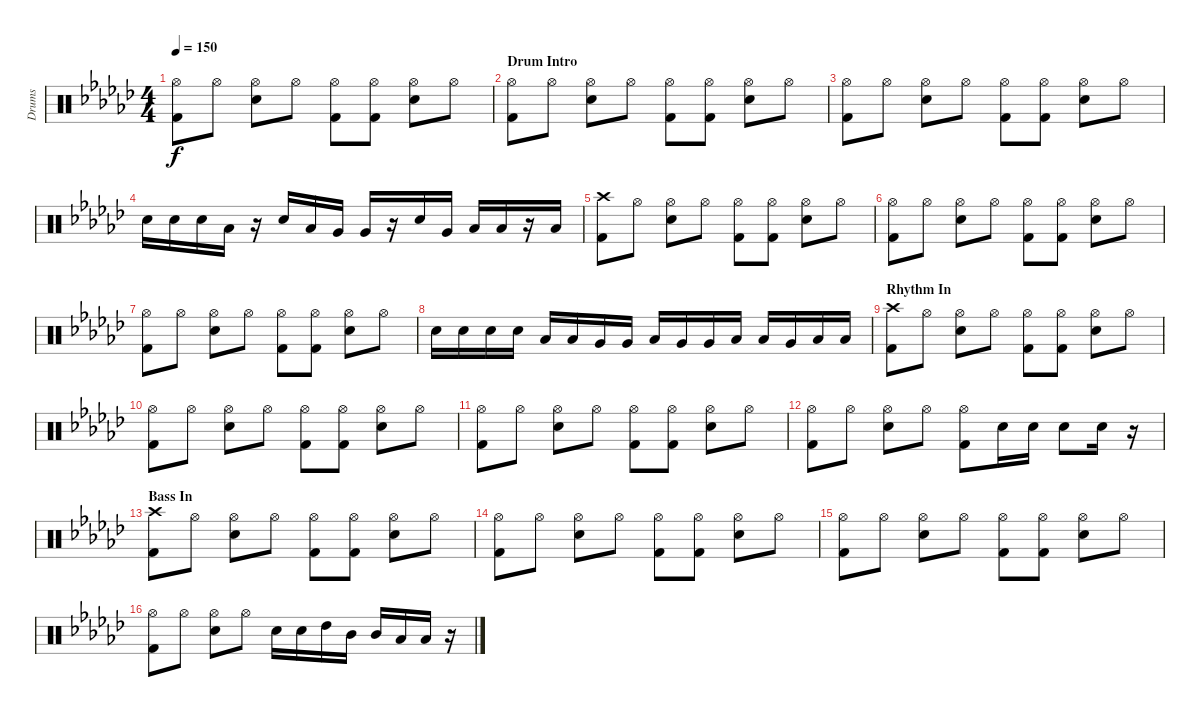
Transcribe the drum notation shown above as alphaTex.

\track ("Drums" "Drums") {instrument percussion}
\staff {score}
\articulation defaults
\ts (4 4)
\tempo 150
\clef neutral
\ks gb
("Hi-Hat (open)" "Kick (hit) 2").8{dy f} "Hi-Hat (open)".8 ("Hi-Hat (open)" "Electric Snare (hit)").8 "Hi-Hat (open)".8 ("Hi-Hat (open)" "Kick (hit) 2").8 ("Hi-Hat (open)" "Kick (hit) 2").8 ("Hi-Hat (open)" "Electric Snare (hit)").8 "Hi-Hat (open)".8 |
\section ("" "Drum Intro")
("Hi-Hat (open)" "Kick (hit) 2").8 "Hi-Hat (open)".8 ("Hi-Hat (open)" "Electric Snare (hit)").8 "Hi-Hat (open)".8 ("Hi-Hat (open)" "Kick (hit) 2").8 ("Hi-Hat (open)" "Kick (hit) 2").8 ("Hi-Hat (open)" "Electric Snare (hit)").8 "Hi-Hat (open)".8 |
("Hi-Hat (open)" "Kick (hit) 2").8 "Hi-Hat (open)".8 ("Hi-Hat (open)" "Electric Snare (hit)").8 "Hi-Hat (open)".8 ("Hi-Hat (open)" "Kick (hit) 2").8 ("Hi-Hat (open)" "Kick (hit) 2").8 ("Hi-Hat (open)" "Electric Snare (hit)").8 "Hi-Hat (open)".8 |
"Electric Snare (hit)".16 "Electric Snare (hit)".16 "Electric Snare (hit)".16 "Low Tom (hit)".16 r.16 "Electric Snare (hit)".16 "Low Tom (hit)".16 "Very Low Tom (hit)".16 "Very Low Tom (hit)".16 r.16 "Electric Snare (hit)".16 "Very Low Tom (hit)".16 "Low Floor Tom (hit)".16 "Low Floor Tom (hit)".16 r.16 "Low Floor Tom (hit)".16 |
("Crash high (hit)" "Kick (hit) 2").8 "Hi-Hat (open)".8 ("Hi-Hat (open)" "Electric Snare (hit)").8 "Hi-Hat (open)".8 ("Hi-Hat (open)" "Kick (hit) 2").8 ("Hi-Hat (open)" "Kick (hit) 2").8 ("Hi-Hat (open)" "Electric Snare (hit)").8 "Hi-Hat (open)".8 |
("Hi-Hat (open)" "Kick (hit) 2").8 "Hi-Hat (open)".8 ("Hi-Hat (open)" "Electric Snare (hit)").8 "Hi-Hat (open)".8 ("Hi-Hat (open)" "Kick (hit) 2").8 ("Hi-Hat (open)" "Kick (hit) 2").8 ("Hi-Hat (open)" "Electric Snare (hit)").8 "Hi-Hat (open)".8 |
("Hi-Hat (open)" "Kick (hit) 2").8 "Hi-Hat (open)".8 ("Hi-Hat (open)" "Electric Snare (hit)").8 "Hi-Hat (open)".8 ("Hi-Hat (open)" "Kick (hit) 2").8 ("Hi-Hat (open)" "Kick (hit) 2").8 ("Hi-Hat (open)" "Electric Snare (hit)").8 "Hi-Hat (open)".8 |
"Electric Snare (hit)".16 "Electric Snare (hit)".16 "Electric Snare (hit)".16 "Electric Snare (hit)".16 "Low Tom (hit)".16 "Low Tom (hit)".16 "Very Low Tom (hit)".16 "Very Low Tom (hit)".16 "Low Tom (hit)".16 "Very Low Tom (hit)".16 "Very Low Tom (hit)".16 "Low Floor Tom (hit)".16 "Low Floor Tom (hit)".16 "Very Low Tom (hit)".16 "Low Floor Tom (hit)".16 "Low Floor Tom (hit)".16 |
\section ("" "Rhythm In")
("Crash high (hit)" "Kick (hit) 2").8 "Hi-Hat (open)".8 ("Hi-Hat (open)" "Electric Snare (hit)").8 "Hi-Hat (open)".8 ("Hi-Hat (open)" "Kick (hit) 2").8 ("Hi-Hat (open)" "Kick (hit) 2").8 ("Hi-Hat (open)" "Electric Snare (hit)").8 "Hi-Hat (open)".8 |
("Hi-Hat (open)" "Kick (hit) 2").8 "Hi-Hat (open)".8 ("Hi-Hat (open)" "Electric Snare (hit)").8 "Hi-Hat (open)".8 ("Hi-Hat (open)" "Kick (hit) 2").8 ("Hi-Hat (open)" "Kick (hit) 2").8 ("Hi-Hat (open)" "Electric Snare (hit)").8 "Hi-Hat (open)".8 |
("Hi-Hat (open)" "Kick (hit) 2").8 "Hi-Hat (open)".8 ("Hi-Hat (open)" "Electric Snare (hit)").8 "Hi-Hat (open)".8 ("Hi-Hat (open)" "Kick (hit) 2").8 ("Hi-Hat (open)" "Kick (hit) 2").8 ("Hi-Hat (open)" "Electric Snare (hit)").8 "Hi-Hat (open)".8 |
("Hi-Hat (open)" "Kick (hit) 2").8 "Hi-Hat (open)".8 ("Hi-Hat (open)" "Electric Snare (hit)").8 "Hi-Hat (open)".8 ("Hi-Hat (open)" "Kick (hit) 2").8 "Electric Snare (hit)".16 "Electric Snare (hit)".16 "Electric Snare (hit)".8 "Electric Snare (hit)".16 r.16 |
\section ("" "Bass In")
("Crash high (hit)" "Kick (hit) 2").8 "Hi-Hat (open)".8 ("Hi-Hat (open)" "Electric Snare (hit)").8 "Hi-Hat (open)".8 ("Hi-Hat (open)" "Kick (hit) 2").8 ("Hi-Hat (open)" "Kick (hit) 2").8 ("Hi-Hat (open)" "Electric Snare (hit)").8 "Hi-Hat (open)".8 |
("Hi-Hat (open)" "Kick (hit) 2").8 "Hi-Hat (open)".8 ("Hi-Hat (open)" "Electric Snare (hit)").8 "Hi-Hat (open)".8 ("Hi-Hat (open)" "Kick (hit) 2").8 ("Hi-Hat (open)" "Kick (hit) 2").8 ("Hi-Hat (open)" "Electric Snare (hit)").8 "Hi-Hat (open)".8 |
("Hi-Hat (open)" "Kick (hit) 2").8 "Hi-Hat (open)".8 ("Hi-Hat (open)" "Electric Snare (hit)").8 "Hi-Hat (open)".8 ("Hi-Hat (open)" "Kick (hit) 2").8 ("Hi-Hat (open)" "Kick (hit) 2").8 ("Hi-Hat (open)" "Electric Snare (hit)").8 "Hi-Hat (open)".8 |
("Hi-Hat (open)" "Kick (hit) 2").8 "Hi-Hat (open)".8 ("Hi-Hat (open)" "Electric Snare (hit)").8 "Hi-Hat (open)".8 "Electric Snare (hit)".16 "Electric Snare (hit)".16 "High Tom (hit)".16 "Mid Tom (hit)".16 "Mid Tom (hit)".16 "Low Tom (hit)".16 "Low Floor Tom (hit)".16 r.16
